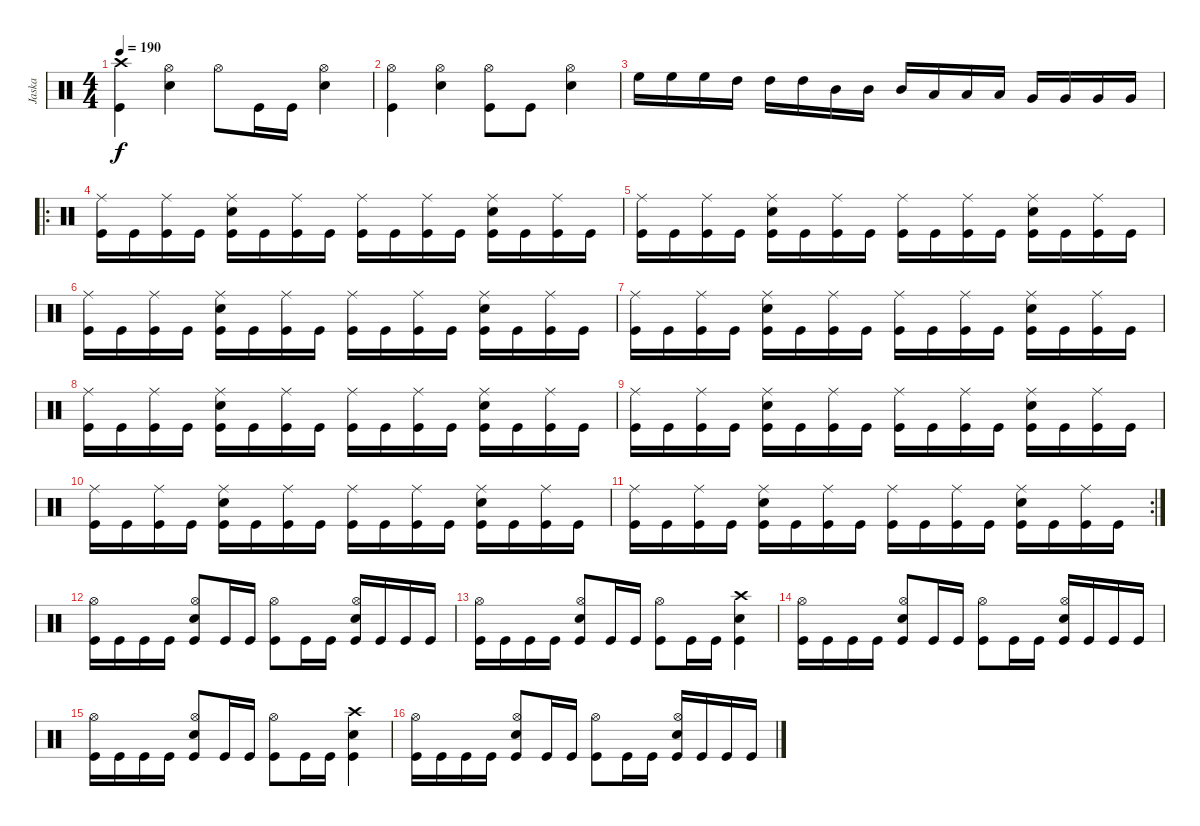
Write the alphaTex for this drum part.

\track ("Jaska" "Jaska") {instrument percussion}
\staff {score}
\articulation defaults
\ts (4 4)
\tempo 190
\clef neutral
\ks c
("Crash high (hit)" "Kick (hit)").4{dy f} ("Hi-Hat (open)" "Snare (hit) 2").4 "Hi-Hat (open)".8 "Kick (hit)".16 "Kick (hit)".16 ("Hi-Hat (open)" "Snare (hit) 2").4 |
("Hi-Hat (open)" "Kick (hit)").4 ("Hi-Hat (open)" "Snare (hit) 2").4 ("Hi-Hat (open)" "Kick (hit)").8 "Kick (hit)".8 ("Hi-Hat (open)" "Snare (hit) 2").4 |
"High Floor Tom (hit)".16 "High Floor Tom (hit)".16 "High Floor Tom (hit)".16 "High Tom (hit)".16 "High Tom (hit)".16 "High Tom (hit)".16 "Mid Tom (hit)".16 "Mid Tom (hit)".16 "Mid Tom (hit)".16 "Low Tom (hit)".16 "Low Tom (hit)".16 "Low Tom (hit)".16 "Very Low Tom (hit)".16 "Very Low Tom (hit)".16 "Very Low Tom (hit)".16 "Very Low Tom (hit)".16 |
\ro
("Ride (middle)" "Kick (hit)").16 "Kick (hit)".16 ("Ride (middle)" "Kick (hit)").16 "Kick (hit)".16 ("Ride (middle)" "Snare (hit) 2" "Kick (hit)").16 "Kick (hit)".16 ("Ride (middle)" "Kick (hit)").16 "Kick (hit)".16 ("Ride (middle)" "Kick (hit)").16 "Kick (hit)".16 ("Ride (middle)" "Kick (hit)").16 "Kick (hit)".16 ("Ride (middle)" "Snare (hit) 2" "Kick (hit)").16 "Kick (hit)".16 ("Ride (middle)" "Kick (hit)").16 "Kick (hit)".16 |
("Ride (middle)" "Kick (hit)").16 "Kick (hit)".16 ("Ride (middle)" "Kick (hit)").16 "Kick (hit)".16 ("Ride (middle)" "Snare (hit) 2" "Kick (hit)").16 "Kick (hit)".16 ("Ride (middle)" "Kick (hit)").16 "Kick (hit)".16 ("Ride (middle)" "Kick (hit)").16 "Kick (hit)".16 ("Ride (middle)" "Kick (hit)").16 "Kick (hit)".16 ("Ride (middle)" "Snare (hit) 2" "Kick (hit)").16 "Kick (hit)".16 ("Ride (middle)" "Kick (hit)").16 "Kick (hit)".16 |
("Ride (middle)" "Kick (hit)").16 "Kick (hit)".16 ("Ride (middle)" "Kick (hit)").16 "Kick (hit)".16 ("Ride (middle)" "Snare (hit) 2" "Kick (hit)").16 "Kick (hit)".16 ("Ride (middle)" "Kick (hit)").16 "Kick (hit)".16 ("Ride (middle)" "Kick (hit)").16 "Kick (hit)".16 ("Ride (middle)" "Kick (hit)").16 "Kick (hit)".16 ("Ride (middle)" "Snare (hit) 2" "Kick (hit)").16 "Kick (hit)".16 ("Ride (middle)" "Kick (hit)").16 "Kick (hit)".16 |
("Ride (middle)" "Kick (hit)").16 "Kick (hit)".16 ("Ride (middle)" "Kick (hit)").16 "Kick (hit)".16 ("Ride (middle)" "Snare (hit) 2" "Kick (hit)").16 "Kick (hit)".16 ("Ride (middle)" "Kick (hit)").16 "Kick (hit)".16 ("Ride (middle)" "Kick (hit)").16 "Kick (hit)".16 ("Ride (middle)" "Kick (hit)").16 "Kick (hit)".16 ("Ride (middle)" "Snare (hit) 2" "Kick (hit)").16 "Kick (hit)".16 ("Ride (middle)" "Kick (hit)").16 "Kick (hit)".16 |
("Ride (middle)" "Kick (hit)").16 "Kick (hit)".16 ("Ride (middle)" "Kick (hit)").16 "Kick (hit)".16 ("Ride (middle)" "Snare (hit) 2" "Kick (hit)").16 "Kick (hit)".16 ("Ride (middle)" "Kick (hit)").16 "Kick (hit)".16 ("Ride (middle)" "Kick (hit)").16 "Kick (hit)".16 ("Ride (middle)" "Kick (hit)").16 "Kick (hit)".16 ("Ride (middle)" "Snare (hit) 2" "Kick (hit)").16 "Kick (hit)".16 ("Ride (middle)" "Kick (hit)").16 "Kick (hit)".16 |
("Ride (middle)" "Kick (hit)").16 "Kick (hit)".16 ("Ride (middle)" "Kick (hit)").16 "Kick (hit)".16 ("Ride (middle)" "Snare (hit) 2" "Kick (hit)").16 "Kick (hit)".16 ("Ride (middle)" "Kick (hit)").16 "Kick (hit)".16 ("Ride (middle)" "Kick (hit)").16 "Kick (hit)".16 ("Ride (middle)" "Kick (hit)").16 "Kick (hit)".16 ("Ride (middle)" "Snare (hit) 2" "Kick (hit)").16 "Kick (hit)".16 ("Ride (middle)" "Kick (hit)").16 "Kick (hit)".16 |
("Ride (middle)" "Kick (hit)").16 "Kick (hit)".16 ("Ride (middle)" "Kick (hit)").16 "Kick (hit)".16 ("Ride (middle)" "Snare (hit) 2" "Kick (hit)").16 "Kick (hit)".16 ("Ride (middle)" "Kick (hit)").16 "Kick (hit)".16 ("Ride (middle)" "Kick (hit)").16 "Kick (hit)".16 ("Ride (middle)" "Kick (hit)").16 "Kick (hit)".16 ("Ride (middle)" "Snare (hit) 2" "Kick (hit)").16 "Kick (hit)".16 ("Ride (middle)" "Kick (hit)").16 "Kick (hit)".16 |
\rc 2
("Ride (middle)" "Kick (hit)").16 "Kick (hit)".16 ("Ride (middle)" "Kick (hit)").16 "Kick (hit)".16 ("Ride (middle)" "Snare (hit) 2" "Kick (hit)").16 "Kick (hit)".16 ("Ride (middle)" "Kick (hit)").16 "Kick (hit)".16 ("Ride (middle)" "Kick (hit)").16 "Kick (hit)".16 ("Ride (middle)" "Kick (hit)").16 "Kick (hit)".16 ("Ride (middle)" "Snare (hit) 2" "Kick (hit)").16 "Kick (hit)".16 ("Ride (middle)" "Kick (hit)").16 "Kick (hit)".16 |
("Hi-Hat (open)" "Kick (hit)").16 "Kick (hit)".16 "Kick (hit)".16 "Kick (hit)".16 ("Hi-Hat (open)" "Snare (hit) 2" "Kick (hit)").8 "Kick (hit)".16 "Kick (hit)".16 ("Hi-Hat (open)" "Kick (hit)").8 "Kick (hit)".16 "Kick (hit)".16 ("Hi-Hat (open)" "Snare (hit) 2" "Kick (hit)").16 "Kick (hit)".16 "Kick (hit)".16 "Kick (hit)".16 |
("Hi-Hat (open)" "Kick (hit)").16 "Kick (hit)".16 "Kick (hit)".16 "Kick (hit)".16 ("Hi-Hat (open)" "Snare (hit) 2" "Kick (hit)").8 "Kick (hit)".16 "Kick (hit)".16 ("Hi-Hat (open)" "Kick (hit)").8 "Kick (hit)".16 "Kick (hit)".16 ("Crash high (hit)" "Snare (hit) 2" "Kick (hit)").4 |
("Hi-Hat (open)" "Kick (hit)").16 "Kick (hit)".16 "Kick (hit)".16 "Kick (hit)".16 ("Hi-Hat (open)" "Snare (hit) 2" "Kick (hit)").8 "Kick (hit)".16 "Kick (hit)".16 ("Hi-Hat (open)" "Kick (hit)").8 "Kick (hit)".16 "Kick (hit)".16 ("Hi-Hat (open)" "Snare (hit) 2" "Kick (hit)").16 "Kick (hit)".16 "Kick (hit)".16 "Kick (hit)".16 |
("Hi-Hat (open)" "Kick (hit)").16 "Kick (hit)".16 "Kick (hit)".16 "Kick (hit)".16 ("Hi-Hat (open)" "Snare (hit) 2" "Kick (hit)").8 "Kick (hit)".16 "Kick (hit)".16 ("Hi-Hat (open)" "Kick (hit)").8 "Kick (hit)".16 "Kick (hit)".16 ("Crash high (hit)" "Snare (hit) 2" "Kick (hit)").4 |
("Hi-Hat (open)" "Kick (hit)").16 "Kick (hit)".16 "Kick (hit)".16 "Kick (hit)".16 ("Hi-Hat (open)" "Snare (hit) 2" "Kick (hit)").8 "Kick (hit)".16 "Kick (hit)".16 ("Hi-Hat (open)" "Kick (hit)").8 "Kick (hit)".16 "Kick (hit)".16 ("Hi-Hat (open)" "Snare (hit) 2" "Kick (hit)").16 "Kick (hit)".16 "Kick (hit)".16 "Kick (hit)".16
